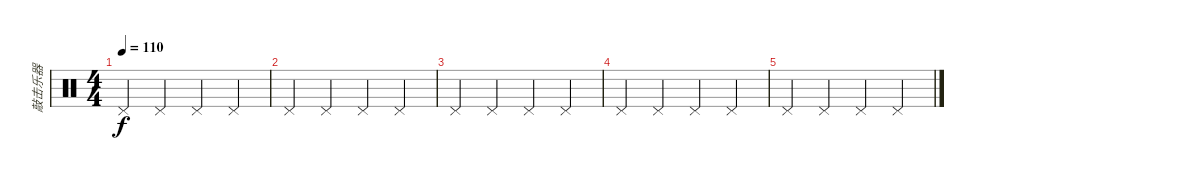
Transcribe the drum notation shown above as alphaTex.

\track ("敲击乐器" "敲击乐器") {instrument percussion}
\staff {score}
\articulation defaults
\ts (4 4)
\tempo 110
\clef neutral
\ks c "Pedal Hi-Hat (hit)".4{dy f} "Pedal Hi-Hat (hit)".4 "Pedal Hi-Hat (hit)".4 "Pedal Hi-Hat (hit)".4
|
"Pedal Hi-Hat (hit)".4 "Pedal Hi-Hat (hit)".4 "Pedal Hi-Hat (hit)".4 "Pedal Hi-Hat (hit)".4 |
"Pedal Hi-Hat (hit)".4 "Pedal Hi-Hat (hit)".4 "Pedal Hi-Hat (hit)".4 "Pedal Hi-Hat (hit)".4 |
"Pedal Hi-Hat (hit)".4 "Pedal Hi-Hat (hit)".4 "Pedal Hi-Hat (hit)".4 "Pedal Hi-Hat (hit)".4 |
"Pedal Hi-Hat (hit)".4 "Pedal Hi-Hat (hit)".4 "Pedal Hi-Hat (hit)".4 "Pedal Hi-Hat (hit)".4
